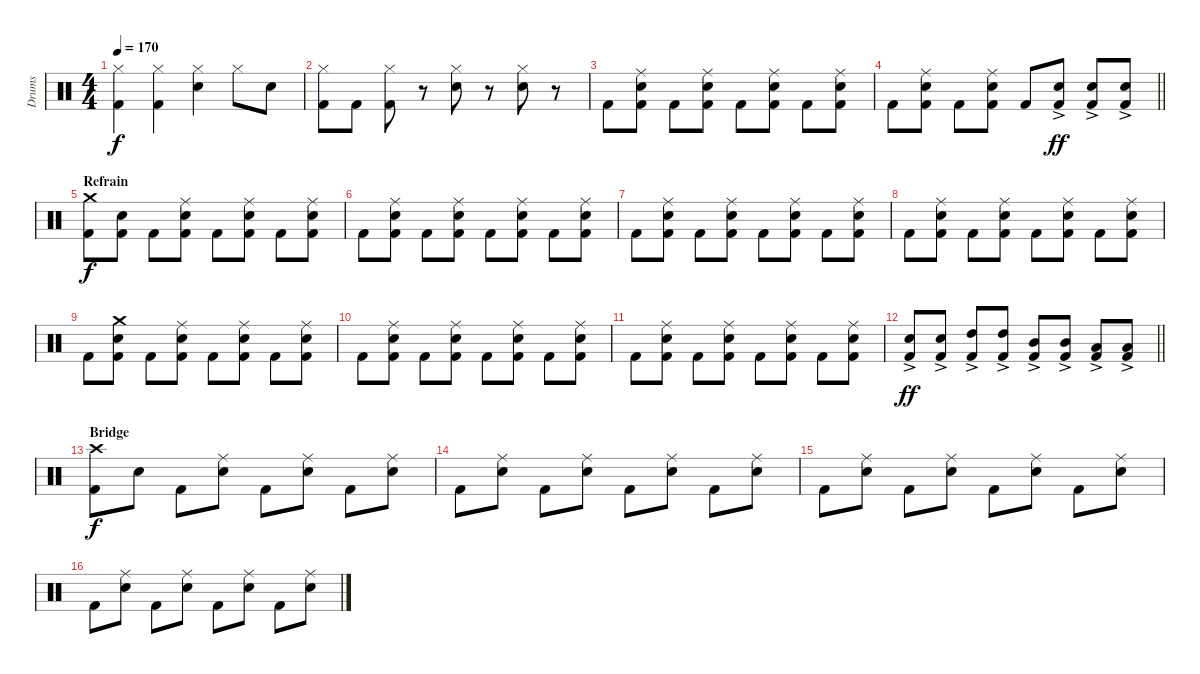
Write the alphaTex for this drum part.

\track ("Drums" "Drums") {instrument percussion}
\staff {score}
\articulation defaults
\ts (4 4)
\tempo 170
\clef neutral
\ks c
("Hi-Hat (closed)" "Kick (hit) 2").4{dy f} ("Hi-Hat (closed)" "Kick (hit) 2").4 ("Hi-Hat (closed)" "Snare (hit) 2").4 "Hi-Hat (closed)".8 "Snare (hit) 2".8 |
("Hi-Hat (closed)" "Kick (hit) 2").8 "Kick (hit) 2".8 ("Hi-Hat (closed)" "Kick (hit) 2").8 r.8 ("Hi-Hat (closed)" "Snare (hit) 2").8 r.8 ("Hi-Hat (closed)" "Snare (hit) 2").8 r.8 |
"Kick (hit) 2".8 ("Ride (middle)" "Snare (hit) 2" "Kick (hit) 2").8 "Kick (hit) 2".8 ("Ride (middle)" "Snare (hit) 2" "Kick (hit) 2").8 "Kick (hit) 2".8 ("Ride (middle)" "Snare (hit) 2" "Kick (hit) 2").8 "Kick (hit) 2".8 ("Ride (middle)" "Snare (hit) 2" "Kick (hit) 2").8 |
\barLineRight lightlight "Kick (hit) 2".8
("Ride (middle)" "Snare (hit) 2" "Kick (hit) 2").8 "Kick (hit) 2".8 ("Ride (middle)" "Snare (hit) 2" "Kick (hit) 2").8 "Kick (hit) 2".8 ("Snare (hit) 2"{ac} "Kick (hit) 2").8{dy ff} ("Snare (hit) 2"{ac} "Kick (hit) 2").8 ("Snare (hit) 2"{ac} "Kick (hit) 2").8 |
\section ("" "Refrain")
("Crash medium (hit)" "Kick (hit) 2").8{dy f} ("Snare (hit) 2" "Kick (hit) 2").8 "Kick (hit) 2".8 ("Ride (middle)" "Snare (hit) 2" "Kick (hit) 2").8 "Kick (hit) 2".8 ("Ride (middle)" "Snare (hit) 2" "Kick (hit) 2").8 "Kick (hit) 2".8 ("Ride (middle)" "Snare (hit) 2" "Kick (hit) 2").8 |
"Kick (hit) 2".8 ("Ride (middle)" "Snare (hit) 2" "Kick (hit) 2").8 "Kick (hit) 2".8 ("Ride (middle)" "Snare (hit) 2" "Kick (hit) 2").8 "Kick (hit) 2".8 ("Ride (middle)" "Snare (hit) 2" "Kick (hit) 2").8 "Kick (hit) 2".8 ("Ride (middle)" "Snare (hit) 2" "Kick (hit) 2").8 |
"Kick (hit) 2".8 ("Ride (middle)" "Snare (hit) 2" "Kick (hit) 2").8 "Kick (hit) 2".8 ("Ride (middle)" "Snare (hit) 2" "Kick (hit) 2").8 "Kick (hit) 2".8 ("Ride (middle)" "Snare (hit) 2" "Kick (hit) 2").8 "Kick (hit) 2".8 ("Ride (middle)" "Snare (hit) 2" "Kick (hit) 2").8 |
"Kick (hit) 2".8 ("Ride (middle)" "Snare (hit) 2" "Kick (hit) 2").8 "Kick (hit) 2".8 ("Ride (middle)" "Snare (hit) 2" "Kick (hit) 2").8 "Kick (hit) 2".8 ("Ride (middle)" "Snare (hit) 2" "Kick (hit) 2").8 "Kick (hit) 2".8 ("Ride (middle)" "Snare (hit) 2" "Kick (hit) 2").8 |
"Kick (hit) 2".8 ("Crash medium (hit)" "Snare (hit) 2" "Kick (hit) 2").8 "Kick (hit) 2".8 ("Ride (middle)" "Snare (hit) 2" "Kick (hit) 2").8 "Kick (hit) 2".8 ("Ride (middle)" "Snare (hit) 2" "Kick (hit) 2").8 "Kick (hit) 2".8 ("Ride (middle)" "Snare (hit) 2" "Kick (hit) 2").8 |
"Kick (hit) 2".8 ("Ride (middle)" "Snare (hit) 2" "Kick (hit) 2").8 "Kick (hit) 2".8 ("Ride (middle)" "Snare (hit) 2" "Kick (hit) 2").8 "Kick (hit) 2".8 ("Ride (middle)" "Snare (hit) 2" "Kick (hit) 2").8 "Kick (hit) 2".8 ("Ride (middle)" "Snare (hit) 2" "Kick (hit) 2").8 |
"Kick (hit) 2".8 ("Ride (middle)" "Snare (hit) 2" "Kick (hit) 2").8 "Kick (hit) 2".8 ("Ride (middle)" "Snare (hit) 2" "Kick (hit) 2").8 "Kick (hit) 2".8 ("Ride (middle)" "Snare (hit) 2" "Kick (hit) 2").8 "Kick (hit) 2".8 ("Ride (middle)" "Snare (hit) 2" "Kick (hit) 2").8 |
\barLineRight lightlight
("Snare (hit) 2"{ac} "Kick (hit) 2").8{dy ff} ("Snare (hit) 2"{ac} "Kick (hit) 2").8 ("High Tom (hit)"{ac} "Kick (hit) 2").8 ("High Tom (hit)"{ac} "Kick (hit) 2").8 ("Mid Tom (hit)"{ac} "Kick (hit) 2").8 ("Mid Tom (hit)"{ac} "Kick (hit) 2").8 ("Low Tom (hit)"{ac} "Kick (hit) 2").8 ("Low Tom (hit)"{ac} "Kick (hit) 2").8 |
\section ("" "Bridge")
("Crash high (hit)" "Kick (hit) 2").8{dy f} "Snare (hit) 2".8 "Kick (hit) 2".8 ("Ride (middle)" "Snare (hit) 2").8 "Kick (hit) 2".8 ("Ride (middle)" "Snare (hit) 2").8 "Kick (hit) 2".8 ("Ride (middle)" "Snare (hit) 2").8 |
"Kick (hit) 2".8 ("Ride (middle)" "Snare (hit) 2").8 "Kick (hit) 2".8 ("Ride (middle)" "Snare (hit) 2").8 "Kick (hit) 2".8 ("Ride (middle)" "Snare (hit) 2").8 "Kick (hit) 2".8 ("Ride (middle)" "Snare (hit) 2").8 |
"Kick (hit) 2".8 ("Ride (middle)" "Snare (hit) 2").8 "Kick (hit) 2".8 ("Ride (middle)" "Snare (hit) 2").8 "Kick (hit) 2".8 ("Ride (middle)" "Snare (hit) 2").8 "Kick (hit) 2".8 ("Ride (middle)" "Snare (hit) 2").8 |
"Kick (hit) 2".8 ("Ride (middle)" "Snare (hit) 2").8 "Kick (hit) 2".8 ("Ride (middle)" "Snare (hit) 2").8 "Kick (hit) 2".8 ("Ride (middle)" "Snare (hit) 2").8 "Kick (hit) 2".8 ("Ride (middle)" "Snare (hit) 2").8
